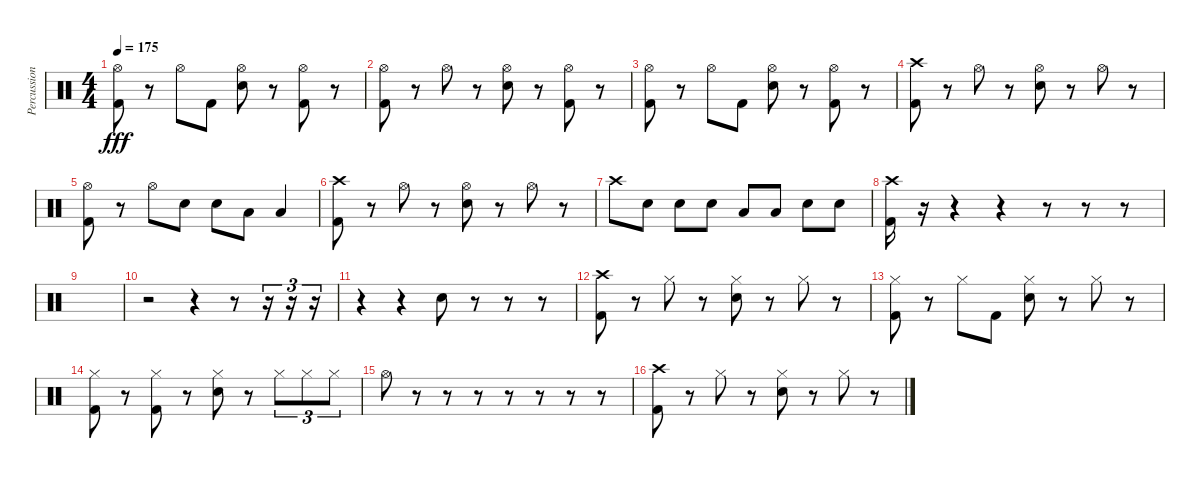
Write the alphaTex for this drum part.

\track ("Percussion" "Percussion") {instrument percussion}
\staff {score}
\articulation defaults
\ts (4 4)
\tempo 175
\clef neutral
\ks c
("Hi-Hat (open)" "Kick (hit) 2").8{dy fff} r.8 "Hi-Hat (open)".8 "Kick (hit) 2".8 ("Hi-Hat (open)" "Electric Snare (hit)").8 r.8 ("Hi-Hat (open)" "Kick (hit) 2").8 r.8 |
("Hi-Hat (open)" "Kick (hit) 2").8 r.8 "Hi-Hat (open)".8 r.8 ("Hi-Hat (open)" "Electric Snare (hit)").8 r.8 ("Hi-Hat (open)" "Kick (hit) 2").8 r.8 |
("Hi-Hat (open)" "Kick (hit) 2").8 r.8 "Hi-Hat (open)".8 "Kick (hit) 2".8 ("Hi-Hat (open)" "Electric Snare (hit)").8 r.8 ("Hi-Hat (open)" "Kick (hit) 2").8 r.8 |
("Crash high (hit)" "Kick (hit) 2").8 r.8 "Hi-Hat (open)".8 r.8 ("Hi-Hat (open)" "Electric Snare (hit)").8 r.8 "Hi-Hat (open)".8 r.8 |
("Hi-Hat (open)" "Kick (hit) 2").8 r.8 "Hi-Hat (open)".8 "Electric Snare (hit)".8 "Electric Snare (hit)".8 "Low Tom (hit)".8 "Low Tom (hit)".4 |
("Crash high (hit)" "Kick (hit) 2").8 r.8 "Hi-Hat (open)".8 r.8 ("Hi-Hat (open)" "Electric Snare (hit)").8 r.8 "Hi-Hat (open)".8 r.8 |
"Crash high (hit)".8 "Electric Snare (hit)".8 "Electric Snare (hit)".8 "Electric Snare (hit)".8 "Low Tom (hit)".8 "Low Tom (hit)".8 "Electric Snare (hit)".8 "Electric Snare (hit)".8 |
("Crash high (hit)" "Kick (hit) 2").16 r.16 r.4 r.4 r.8 r.8 r.8 |
|
r.2 r.4 r.8 r.16{tu (3 2)} r.16{tu (3 2)} r.16{tu (3 2)} |
r.4 r.4 "Electric Snare (hit)".8 r.8 r.8 r.8 |
("Crash high (hit)" "Kick (hit) 2").8 r.8 "Hi-Hat (closed)".8 r.8 ("Hi-Hat (closed)" "Electric Snare (hit)").8 r.8 "Hi-Hat (closed)".8 r.8 |
("Hi-Hat (closed)" "Kick (hit) 2").8 r.8 "Hi-Hat (closed)".8 "Kick (hit) 2".8 ("Hi-Hat (closed)" "Electric Snare (hit)").8 r.8 "Hi-Hat (closed)".8 r.8 |
("Hi-Hat (closed)" "Kick (hit) 2").8 r.8 ("Hi-Hat (closed)" "Kick (hit) 2").8 r.8 ("Hi-Hat (closed)" "Electric Snare (hit)").8 r.8 "Hi-Hat (closed)".8{tu (3 2)} "Hi-Hat (closed)".8{tu (3 2)} "Hi-Hat (closed)".8{tu (3 2)} |
"Hi-Hat (open)".8 r.8 r.8 r.8 r.8 r.8 r.8 r.8 |
("Crash high (hit)" "Kick (hit) 2").8 r.8 "Hi-Hat (closed)".8 r.8 ("Hi-Hat (closed)" "Electric Snare (hit)").8 r.8 "Hi-Hat (closed)".8 r.8
